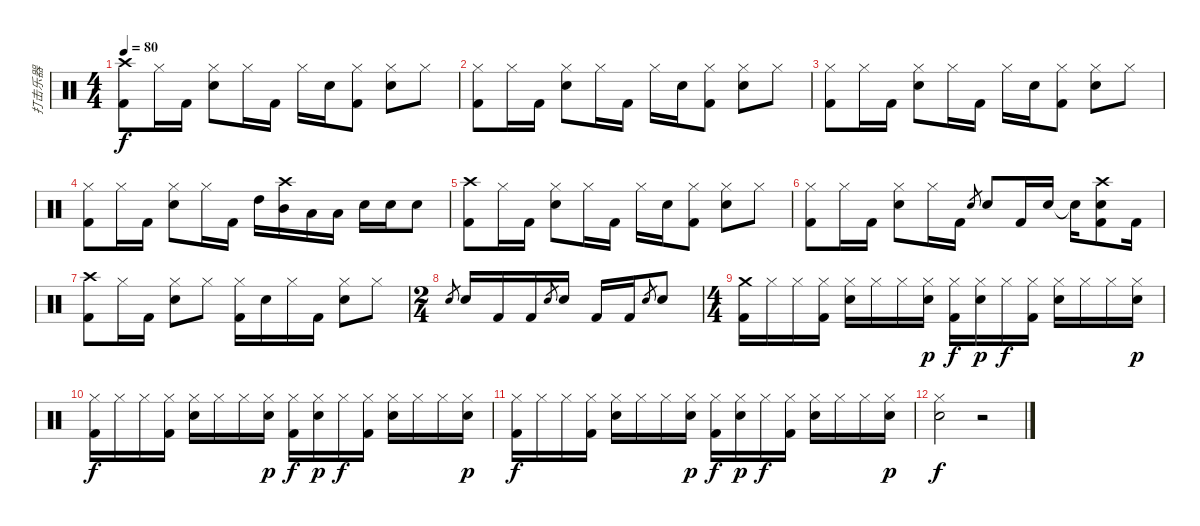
\track ("打击乐器" "打击乐器") {instrument percussion}
\staff {score}
\articulation defaults
\ts (4 4)
\tempo 80
\clef neutral
\ks c
("Crash high (hit)" "Kick (hit) 2").8{dy f} "Hi-Hat (closed)".16 "Kick (hit) 2".16 ("Hi-Hat (closed)" "Electric Snare (hit)").8 "Hi-Hat (closed)".16 "Kick (hit) 2".16 "Hi-Hat (closed)".16 "Electric Snare (hit)".16 ("Hi-Hat (closed)" "Kick (hit) 2").8 ("Hi-Hat (closed)" "Electric Snare (hit)").8 "Hi-Hat (closed)".8 |
("Hi-Hat (closed)" "Kick (hit) 2").8 "Hi-Hat (closed)".16 "Kick (hit) 2".16 ("Hi-Hat (closed)" "Electric Snare (hit)").8 "Hi-Hat (closed)".16 "Kick (hit) 2".16 "Hi-Hat (closed)".16 "Electric Snare (hit)".16 ("Hi-Hat (closed)" "Kick (hit) 2").8 ("Hi-Hat (closed)" "Electric Snare (hit)").8 "Hi-Hat (closed)".8 |
("Hi-Hat (closed)" "Kick (hit) 2").8 "Hi-Hat (closed)".16 "Kick (hit) 2".16 ("Hi-Hat (closed)" "Electric Snare (hit)").8 "Hi-Hat (closed)".16 "Kick (hit) 2".16 "Hi-Hat (closed)".16 "Electric Snare (hit)".16 ("Hi-Hat (closed)" "Kick (hit) 2").8 ("Hi-Hat (closed)" "Electric Snare (hit)").8 "Hi-Hat (closed)".8 |
("Hi-Hat (closed)" "Kick (hit) 2").8 "Hi-Hat (closed)".16 "Kick (hit) 2".16 ("Hi-Hat (closed)" "Electric Snare (hit)").8 "Hi-Hat (closed)".16 "Kick (hit) 2".16 "High Tom (hit)".16 ("Crash high (hit)" "Mid Tom (hit)").16 "Low Tom (hit)".16 "Low Tom (hit)".16 "Electric Snare (hit)".16 "Electric Snare (hit)".16 "Electric Snare (hit)".8 |
("Crash high (hit)" "Kick (hit) 2").8 "Hi-Hat (closed)".16 "Kick (hit) 2".16 ("Hi-Hat (closed)" "Electric Snare (hit)").8 "Hi-Hat (closed)".16 "Kick (hit) 2".16 "Hi-Hat (closed)".16 "Electric Snare (hit)".16 ("Hi-Hat (closed)" "Kick (hit) 2").8 ("Hi-Hat (closed)" "Electric Snare (hit)").8 "Hi-Hat (closed)".8 |
("Hi-Hat (closed)" "Kick (hit) 2").8 "Hi-Hat (closed)".16 "Kick (hit) 2".16 ("Hi-Hat (closed)" "Electric Snare (hit)").8 "Hi-Hat (closed)".16 "Kick (hit) 2".16 "Electric Snare (hit)".8{gr} "Electric Snare (hit)".8 "Kick (hit) 2".16 "Electric Snare (hit)".16 "Snare (hit)"{t}.16 ("Crash high (hit)" "Electric Snare (hit)" "Kick (hit) 2").8 "Kick (hit) 2".16 |
("Crash high (hit)" "Kick (hit) 2").8 "Hi-Hat (closed)".16 "Kick (hit) 2".16 ("Hi-Hat (closed)" "Electric Snare (hit)").8 "Hi-Hat (closed)".8 ("Hi-Hat (closed)" "Kick (hit) 2").16 "Electric Snare (hit)".16 "Hi-Hat (closed)".16 "Kick (hit) 2".16 ("Hi-Hat (closed)" "Electric Snare (hit)").8 "Hi-Hat (closed)".8 |
\ts (2 4)
"Electric Snare (hit)".8{gr} "Electric Snare (hit)".16 "Kick (hit) 2".16 "Kick (hit) 2".16 "Electric Snare (hit)".8{gr} "Electric Snare (hit)".16 "Kick (hit) 2".16 "Kick (hit) 2".16 "Electric Snare (hit)".8{gr} "Electric Snare (hit)".8 |
\ts (4 4)
("Crash medium (hit)" "Kick (hit) 2").16 "Hi-Hat (closed)".16 "Hi-Hat (closed)".16 ("Hi-Hat (closed)" "Kick (hit) 2").16 ("Hi-Hat (closed)" "Snare (hit) 2").16 "Hi-Hat (closed)".16 "Hi-Hat (closed)".16 ("Hi-Hat (closed)" "Hand Clap (hit)").16{dy p} ("Hi-Hat (closed)" "Kick (hit) 2").16{dy f} ("Hi-Hat (closed)" "Hand Clap (hit)").16{dy p} "Hi-Hat (closed)".16{dy f} ("Hi-Hat (closed)" "Kick (hit) 2").16 ("Hi-Hat (closed)" "Snare (hit) 2").16 "Hi-Hat (closed)".16 "Hi-Hat (closed)".16 ("Hi-Hat (closed)" "Hand Clap (hit)").16{dy p} |
("Hi-Hat (closed)" "Kick (hit) 2").16{dy f} "Hi-Hat (closed)".16 "Hi-Hat (closed)".16 ("Hi-Hat (closed)" "Kick (hit) 2").16 ("Hi-Hat (closed)" "Snare (hit) 2").16 "Hi-Hat (closed)".16 "Hi-Hat (closed)".16 ("Hi-Hat (closed)" "Hand Clap (hit)").16{dy p} ("Hi-Hat (closed)" "Kick (hit) 2").16{dy f} ("Hi-Hat (closed)" "Hand Clap (hit)").16{dy p} "Hi-Hat (closed)".16{dy f} ("Hi-Hat (closed)" "Kick (hit) 2").16 ("Hi-Hat (closed)" "Snare (hit) 2").16 "Hi-Hat (closed)".16 "Hi-Hat (closed)".16 ("Hi-Hat (closed)" "Hand Clap (hit)").16{dy p} |
("Hi-Hat (closed)" "Kick (hit) 2").16{dy f} "Hi-Hat (closed)".16 "Hi-Hat (closed)".16 ("Hi-Hat (closed)" "Kick (hit) 2").16 ("Hi-Hat (closed)" "Snare (hit) 2").16 "Hi-Hat (closed)".16 "Hi-Hat (closed)".16 ("Hi-Hat (closed)" "Hand Clap (hit)").16{dy p} ("Hi-Hat (closed)" "Kick (hit) 2").16{dy f} ("Hi-Hat (closed)" "Hand Clap (hit)").16{dy p} "Hi-Hat (closed)".16{dy f} ("Hi-Hat (closed)" "Kick (hit) 2").16 ("Hi-Hat (closed)" "Snare (hit) 2").16 "Hi-Hat (closed)".16 "Hi-Hat (closed)".16 ("Hi-Hat (closed)" "Hand Clap (hit)").16{dy p} |
("Hi-Hat (closed)" "Snare (hit) 2").2{dy f} r.2
